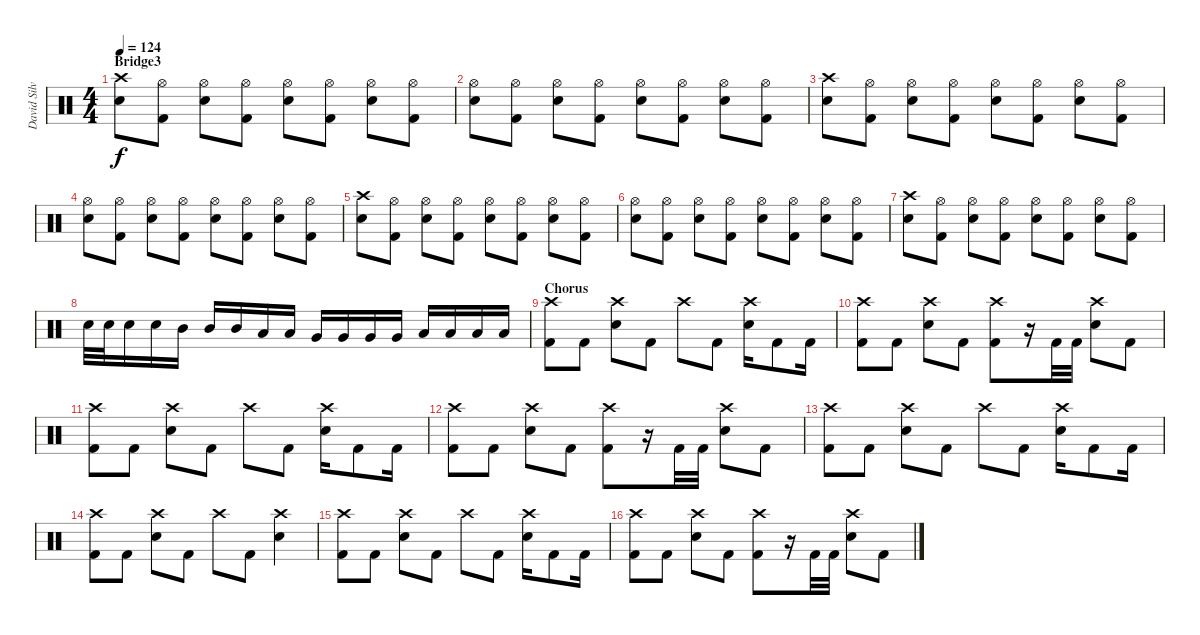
\track ("David Silvera" "David Silv") {instrument percussion}
\staff {score}
\articulation defaults
\ts (4 4)
\section ("" "Bridge3")
\tempo 124
\clef neutral
\ks c
("Crash high (hit)" "Electric Snare (hit)").8{dy f} ("Hi-Hat (open)" "Kick (hit) 2").8 ("Hi-Hat (open)" "Electric Snare (hit)").8 ("Hi-Hat (open)" "Kick (hit) 2").8 ("Hi-Hat (open)" "Electric Snare (hit)").8 ("Hi-Hat (open)" "Kick (hit) 2").8 ("Hi-Hat (open)" "Electric Snare (hit)").8 ("Hi-Hat (open)" "Kick (hit) 2").8 |
("Hi-Hat (open)" "Electric Snare (hit)").8 ("Hi-Hat (open)" "Kick (hit) 2").8 ("Hi-Hat (open)" "Electric Snare (hit)").8 ("Hi-Hat (open)" "Kick (hit) 2").8 ("Hi-Hat (open)" "Electric Snare (hit)").8 ("Hi-Hat (open)" "Kick (hit) 2").8 ("Hi-Hat (open)" "Electric Snare (hit)").8 ("Hi-Hat (open)" "Kick (hit) 2").8 |
("Crash high (hit)" "Electric Snare (hit)").8 ("Hi-Hat (open)" "Kick (hit) 2").8 ("Hi-Hat (open)" "Electric Snare (hit)").8 ("Hi-Hat (open)" "Kick (hit) 2").8 ("Hi-Hat (open)" "Electric Snare (hit)").8 ("Hi-Hat (open)" "Kick (hit) 2").8 ("Hi-Hat (open)" "Electric Snare (hit)").8 ("Hi-Hat (open)" "Kick (hit) 2").8 |
("Hi-Hat (open)" "Electric Snare (hit)").8 ("Hi-Hat (open)" "Kick (hit) 2").8 ("Hi-Hat (open)" "Electric Snare (hit)").8 ("Hi-Hat (open)" "Kick (hit) 2").8 ("Hi-Hat (open)" "Electric Snare (hit)").8 ("Hi-Hat (open)" "Kick (hit) 2").8 ("Hi-Hat (open)" "Electric Snare (hit)").8 ("Hi-Hat (open)" "Kick (hit) 2").8 |
("Crash high (hit)" "Electric Snare (hit)").8 ("Hi-Hat (open)" "Kick (hit) 2").8 ("Hi-Hat (open)" "Electric Snare (hit)").8 ("Hi-Hat (open)" "Kick (hit) 2").8 ("Hi-Hat (open)" "Electric Snare (hit)").8 ("Hi-Hat (open)" "Kick (hit) 2").8 ("Hi-Hat (open)" "Electric Snare (hit)").8 ("Hi-Hat (open)" "Kick (hit) 2").8 |
("Hi-Hat (open)" "Electric Snare (hit)").8 ("Hi-Hat (open)" "Kick (hit) 2").8 ("Hi-Hat (open)" "Electric Snare (hit)").8 ("Hi-Hat (open)" "Kick (hit) 2").8 ("Hi-Hat (open)" "Electric Snare (hit)").8 ("Hi-Hat (open)" "Kick (hit) 2").8 ("Hi-Hat (open)" "Electric Snare (hit)").8 ("Hi-Hat (open)" "Kick (hit) 2").8 |
("Crash high (hit)" "Electric Snare (hit)").8 ("Hi-Hat (open)" "Kick (hit) 2").8 ("Hi-Hat (open)" "Electric Snare (hit)").8 ("Hi-Hat (open)" "Kick (hit) 2").8 ("Hi-Hat (open)" "Electric Snare (hit)").8 ("Hi-Hat (open)" "Kick (hit) 2").8 ("Hi-Hat (open)" "Electric Snare (hit)").8 ("Hi-Hat (open)" "Kick (hit) 2").8 |
"Electric Snare (hit)".32 "Electric Snare (hit)".32 "Electric Snare (hit)".16 "Electric Snare (hit)".16 "Mid Tom (hit)".16 "Mid Tom (hit)".16 "Mid Tom (hit)".16 "Low Tom (hit)".16 "Low Tom (hit)".16 "Very Low Tom (hit)".16 "Very Low Tom (hit)".16 "Very Low Tom (hit)".16 "Very Low Tom (hit)".16 "Low Floor Tom (hit)".16 "Low Floor Tom (hit)".16 "Low Floor Tom (hit)".16 "Low Floor Tom (hit)".16 |
\section ("" "Chorus")
("Crash high (hit)" "Kick (hit) 2").8 "Kick (hit) 2".8 ("Crash high (hit)" "Electric Snare (hit)").8 "Kick (hit) 2".8 "Crash high (hit)".8 "Kick (hit) 2".8 ("Crash high (hit)" "Electric Snare (hit)").16 "Kick (hit) 2".8 "Kick (hit) 2".16 |
("Crash high (hit)" "Kick (hit) 2").8 "Kick (hit) 2".8 ("Crash high (hit)" "Electric Snare (hit)").8 "Kick (hit) 2".8 ("Crash high (hit)" "Kick (hit) 2").8 r.16 "Kick (hit) 2".32 "Kick (hit) 2".32 ("Crash high (hit)" "Electric Snare (hit)").8 "Kick (hit) 2".8 |
("Crash high (hit)" "Kick (hit) 2").8 "Kick (hit) 2".8 ("Crash high (hit)" "Electric Snare (hit)").8 "Kick (hit) 2".8 "Crash high (hit)".8 "Kick (hit) 2".8 ("Crash high (hit)" "Electric Snare (hit)").16 "Kick (hit) 2".8 "Kick (hit) 2".16 |
("Crash high (hit)" "Kick (hit) 2").8 "Kick (hit) 2".8 ("Crash high (hit)" "Electric Snare (hit)").8 "Kick (hit) 2".8 ("Crash high (hit)" "Kick (hit) 2").8 r.16 "Kick (hit) 2".32 "Kick (hit) 2".32 ("Crash high (hit)" "Electric Snare (hit)").8 "Kick (hit) 2".8 |
("Crash high (hit)" "Kick (hit) 2").8 "Kick (hit) 2".8 ("Crash high (hit)" "Electric Snare (hit)").8 "Kick (hit) 2".8 "Crash high (hit)".8 "Kick (hit) 2".8 ("Crash high (hit)" "Electric Snare (hit)").16 "Kick (hit) 2".8 "Kick (hit) 2".16 |
("Crash high (hit)" "Kick (hit) 2").8 "Kick (hit) 2".8 ("Crash high (hit)" "Electric Snare (hit)").8 "Kick (hit) 2".8 "Crash high (hit)".8 "Kick (hit) 2".8 ("Crash high (hit)" "Electric Snare (hit)").4 |
("Crash high (hit)" "Kick (hit) 2").8 "Kick (hit) 2".8 ("Crash high (hit)" "Electric Snare (hit)").8 "Kick (hit) 2".8 "Crash high (hit)".8 "Kick (hit) 2".8 ("Crash high (hit)" "Electric Snare (hit)").16 "Kick (hit) 2".8 "Kick (hit) 2".16 |
("Crash high (hit)" "Kick (hit) 2").8 "Kick (hit) 2".8 ("Crash high (hit)" "Electric Snare (hit)").8 "Kick (hit) 2".8 ("Crash high (hit)" "Kick (hit) 2").8 r.16 "Kick (hit) 2".32 "Kick (hit) 2".32 ("Crash high (hit)" "Electric Snare (hit)").8 "Kick (hit) 2".8
